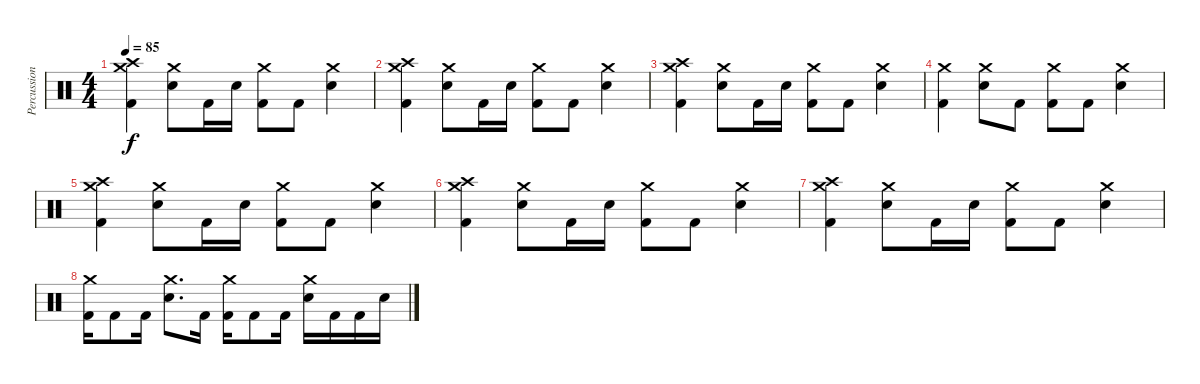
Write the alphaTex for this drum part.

\track ("Percussions" "Percussion") {instrument percussion}
\staff {score}
\articulation defaults
\ts (4 4)
\tempo 85
\clef neutral
\ks c
("Crash high (hit)" "Kick (hit) 2" "Crash medium (hit)").4{dy f} ("Electric Snare (hit)" "Crash medium (hit)").8 "Kick (hit) 2".16 "Electric Snare (hit)".16 ("Kick (hit) 2" "Crash medium (hit)").8 "Kick (hit) 2".8 ("Electric Snare (hit)" "Crash medium (hit)").4 |
("Crash high (hit)" "Kick (hit) 2" "Crash medium (hit)").4 ("Electric Snare (hit)" "Crash medium (hit)").8 "Kick (hit) 2".16 "Electric Snare (hit)".16 ("Kick (hit) 2" "Crash medium (hit)").8 "Kick (hit) 2".8 ("Electric Snare (hit)" "Crash medium (hit)").4 |
("Crash high (hit)" "Kick (hit) 2" "Crash medium (hit)").4 ("Electric Snare (hit)" "Crash medium (hit)").8 "Kick (hit) 2".16 "Electric Snare (hit)".16 ("Kick (hit) 2" "Crash medium (hit)").8 "Kick (hit) 2".8 ("Electric Snare (hit)" "Crash medium (hit)").4 |
("Kick (hit) 2" "Crash medium (hit)").4 ("Electric Snare (hit)" "Crash medium (hit)").8 "Kick (hit) 2".8 ("Kick (hit) 2" "Crash medium (hit)").8 "Kick (hit) 2".8 ("Electric Snare (hit)" "Crash medium (hit)").4 |
("Crash high (hit)" "Kick (hit) 2" "Crash medium (hit)").4 ("Electric Snare (hit)" "Crash medium (hit)").8 "Kick (hit) 2".16 "Electric Snare (hit)".16 ("Kick (hit) 2" "Crash medium (hit)").8 "Kick (hit) 2".8 ("Electric Snare (hit)" "Crash medium (hit)").4 |
("Crash high (hit)" "Kick (hit) 2" "Crash medium (hit)").4 ("Electric Snare (hit)" "Crash medium (hit)").8 "Kick (hit) 2".16 "Electric Snare (hit)".16 ("Kick (hit) 2" "Crash medium (hit)").8 "Kick (hit) 2".8 ("Electric Snare (hit)" "Crash medium (hit)").4 |
("Crash high (hit)" "Kick (hit) 2" "Crash medium (hit)").4 ("Electric Snare (hit)" "Crash medium (hit)").8 "Kick (hit) 2".16 "Electric Snare (hit)".16 ("Kick (hit) 2" "Crash medium (hit)").8 "Kick (hit) 2".8 ("Electric Snare (hit)" "Crash medium (hit)").4 |
("Kick (hit) 2" "Crash medium (hit)").16 "Kick (hit) 2".8 "Kick (hit) 2".16 ("Electric Snare (hit)" "Crash medium (hit)").8{d} "Kick (hit) 2".16 ("Kick (hit) 2" "Crash medium (hit)").16 "Kick (hit) 2".8 "Kick (hit) 2".16 ("Electric Snare (hit)" "Crash medium (hit)").16 "Kick (hit) 2".16 "Kick (hit) 2".16 "Electric Snare (hit)".16
